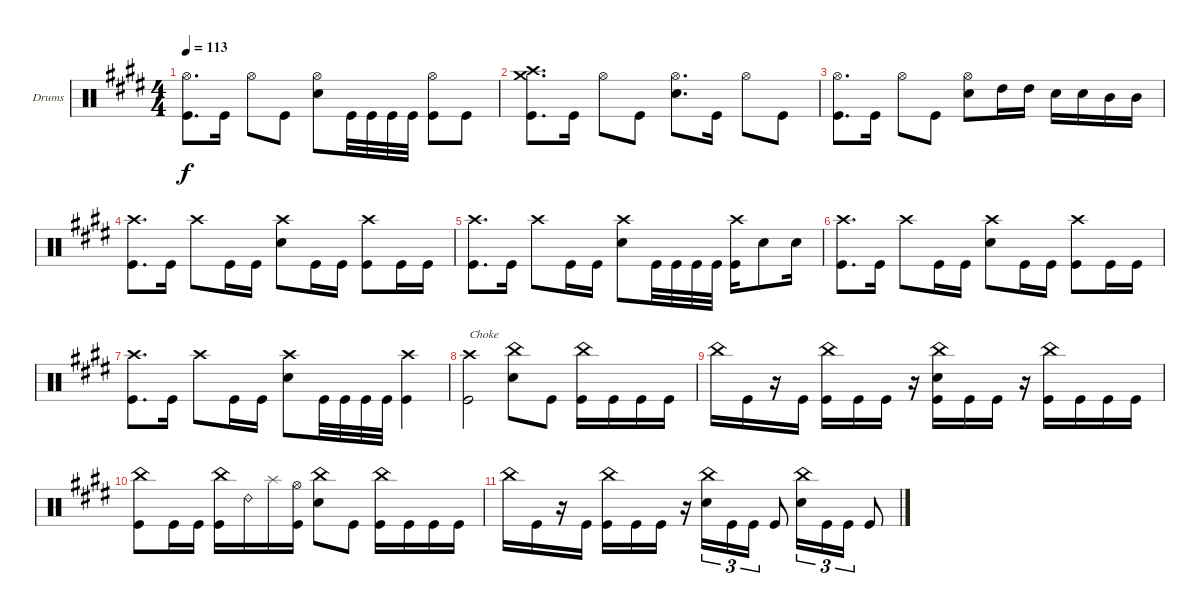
\bracketExtendMode groupsimilarinstruments
\firstSystemTrackNameOrientation horizontal
\otherSystemsTrackNameOrientation horizontal
\track ("Drumkit" "Drums") {instrument percussion}
\staff {score}
\articulation defaults
\ts (4 4)
\tempo 113
\clef neutral
\ks e
("Kick (hit)" "Hi-Hat (open)").8{d dy f} "Kick (hit)".16 "Hi-Hat (open)".8 "Kick (hit)".8 ("Snare (hit) 2" "Hi-Hat (open)").8 "Kick (hit)".32 "Kick (hit)".32 "Kick (hit)".32 "Kick (hit)".32 ("Kick (hit)" "Hi-Hat (open)").8 "Kick (hit)".8 |
("Kick (hit)" "Crash high (hit)" "Crash medium (hit)").8{d} "Kick (hit)".16 "Hi-Hat (open)".8 "Kick (hit)".8 ("Snare (hit) 2" "Hi-Hat (open)").8{d} "Kick (hit)".16 "Hi-Hat (open)".8 "Kick (hit)".8 |
("Kick (hit)" "Hi-Hat (open)").8{d} "Kick (hit)".16 "Hi-Hat (open)".8 "Kick (hit)".8 ("Snare (hit) 2" "Hi-Hat (open)").8 "High Tom (hit)".16 "High Tom (hit)".16 "Snare (hit) 2".16 "Snare (hit) 2".16 "Mid Tom (hit)".16 "Mid Tom (hit)".16 |
("Kick (hit)" "Crash high (hit)").8{d} "Kick (hit)".16 "Crash high (hit)".8 "Kick (hit)".16 "Kick (hit)".16 ("Snare (hit) 2" "Crash high (hit)").8 "Kick (hit)".16 "Kick (hit)".16 ("Crash high (hit)" "Kick (hit)").8 "Kick (hit)".16 "Kick (hit)".16 |
("Kick (hit)" "Crash high (hit)").8{d} "Kick (hit)".16 "Crash high (hit)".8 "Kick (hit)".16 "Kick (hit)".16 ("Snare (hit) 2" "Crash high (hit)").8 "Kick (hit)".32 "Kick (hit)".32 "Kick (hit)".32 "Kick (hit)".32 ("Kick (hit)" "Crash high (hit)").16 "Snare (hit) 2".8 "Snare (hit) 2".16 |
("Kick (hit)" "Crash high (hit)").8{d} "Kick (hit)".16 "Crash high (hit)".8 "Kick (hit)".16 "Kick (hit)".16 ("Snare (hit) 2" "Crash high (hit)").8 "Kick (hit)".16 "Kick (hit)".16 ("Crash high (hit)" "Kick (hit)").8 "Kick (hit)".16 "Kick (hit)".16 |
("Kick (hit)" "Crash high (hit)").8{d} "Kick (hit)".16 "Crash high (hit)".8 "Kick (hit)".16 "Kick (hit)".16 ("Snare (hit) 2" "Crash high (hit)").8 "Kick (hit)".32 "Kick (hit)".32 "Kick (hit)".32 "Kick (hit)".32 ("Kick (hit)" "Crash high (hit)").4 |
("Kick (hit)" "Crash high (hit)").2{txt "Choke"} ("China (hit)" "Snare (hit) 2").8 "Kick (hit)".8 ("Kick (hit)" "China (hit)").16 "Kick (hit)".16 "Kick (hit)".16 "Kick (hit)".16 |
"China (hit)".16 "Kick (hit)".16 r.16 "Kick (hit)".16 ("Kick (hit)" "China (hit)").16 "Kick (hit)".16 "Kick (hit)".16 r.16 ("Kick (hit)" "China (hit)" "Snare (hit) 2").16 "Kick (hit)".16 "Kick (hit)".16 r.16 ("Kick (hit)" "China (hit)").16 "Kick (hit)".16 "Kick (hit)".16 "Kick (hit)".16 |
("Kick (hit)" "China (hit)").8 "Kick (hit)".16 "Kick (hit)".16 ("Kick (hit)" "China (hit)").16 "Ride (bell) 2".16 "Splash (hit)".16 ("Kick (hit)" "Hi-Hat (open)").16 ("Snare (hit) 2" "China (hit)").8 "Kick (hit)".8 ("Kick (hit)" "China (hit)").16 "Kick (hit)".16 "Kick (hit)".16 "Kick (hit)".16 |
"China (hit)".16 "Kick (hit)".16 r.16 "Kick (hit)".16 ("Kick (hit)" "China (hit)").16 "Kick (hit)".16 "Kick (hit)".16 r.16 ("Snare (hit) 2" "China (hit)").16{tu (3 2)} "Kick (hit)".16{tu (3 2)} "Kick (hit)".16{tu (3 2)} "Kick (hit)".8 ("Snare (hit) 2" "China (hit)").16{tu (3 2)} "Kick (hit)".16{tu (3 2)} "Kick (hit)".16{tu (3 2)} "Kick (hit)".8
